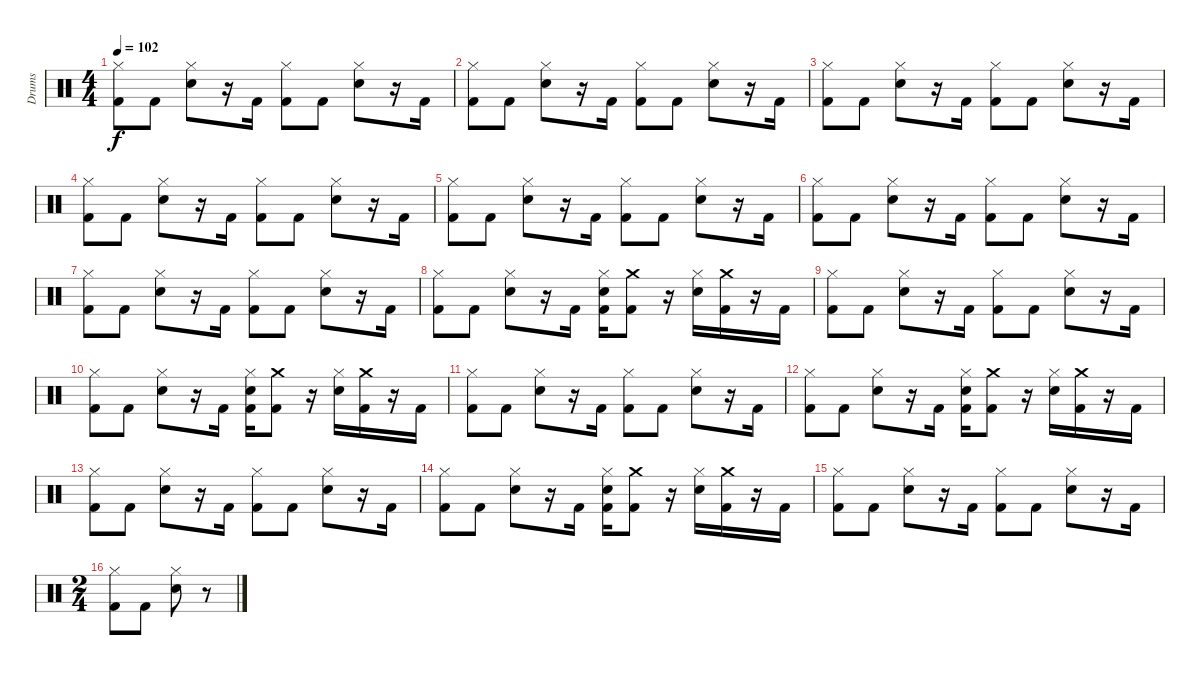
\track ("Drums" "Drums") {instrument percussion}
\staff {score}
\articulation defaults
\ts (4 4)
\tempo 102
\clef neutral
\ks c
("Hi-Hat (closed)" "Kick (hit) 2").8{dy f} "Kick (hit) 2".8 ("Hi-Hat (closed)" "Snare (hit) 2").8 r.16 "Kick (hit) 2".16 ("Hi-Hat (closed)" "Kick (hit) 2").8 "Kick (hit) 2".8 ("Hi-Hat (closed)" "Snare (hit) 2").8 r.16 "Kick (hit) 2".16 |
("Hi-Hat (closed)" "Kick (hit) 2").8 "Kick (hit) 2".8 ("Hi-Hat (closed)" "Snare (hit) 2").8 r.16 "Kick (hit) 2".16 ("Hi-Hat (closed)" "Kick (hit) 2").8 "Kick (hit) 2".8 ("Hi-Hat (closed)" "Snare (hit) 2").8 r.16 "Kick (hit) 2".16 |
("Hi-Hat (closed)" "Kick (hit) 2").8 "Kick (hit) 2".8 ("Hi-Hat (closed)" "Snare (hit) 2").8 r.16 "Kick (hit) 2".16 ("Hi-Hat (closed)" "Kick (hit) 2").8 "Kick (hit) 2".8 ("Hi-Hat (closed)" "Snare (hit) 2").8 r.16 "Kick (hit) 2".16 |
("Hi-Hat (closed)" "Kick (hit) 2").8 "Kick (hit) 2".8 ("Hi-Hat (closed)" "Snare (hit) 2").8 r.16 "Kick (hit) 2".16 ("Hi-Hat (closed)" "Kick (hit) 2").8 "Kick (hit) 2".8 ("Hi-Hat (closed)" "Snare (hit) 2").8 r.16 "Kick (hit) 2".16 |
("Hi-Hat (closed)" "Kick (hit) 2").8 "Kick (hit) 2".8 ("Hi-Hat (closed)" "Snare (hit) 2").8 r.16 "Kick (hit) 2".16 ("Hi-Hat (closed)" "Kick (hit) 2").8 "Kick (hit) 2".8 ("Hi-Hat (closed)" "Snare (hit) 2").8 r.16 "Kick (hit) 2".16 |
("Hi-Hat (closed)" "Kick (hit) 2").8 "Kick (hit) 2".8 ("Hi-Hat (closed)" "Snare (hit) 2").8 r.16 "Kick (hit) 2".16 ("Hi-Hat (closed)" "Kick (hit) 2").8 "Kick (hit) 2".8 ("Hi-Hat (closed)" "Snare (hit) 2").8 r.16 "Kick (hit) 2".16 |
("Hi-Hat (closed)" "Kick (hit) 2").8 "Kick (hit) 2".8 ("Hi-Hat (closed)" "Snare (hit) 2").8 r.16 "Kick (hit) 2".16 ("Hi-Hat (closed)" "Kick (hit) 2").8 "Kick (hit) 2".8 ("Hi-Hat (closed)" "Snare (hit) 2").8 r.16 "Kick (hit) 2".16 |
("Hi-Hat (closed)" "Kick (hit) 2").8 "Kick (hit) 2".8 ("Hi-Hat (closed)" "Snare (hit) 2").8 r.16 "Kick (hit) 2".16 ("Hi-Hat (closed)" "Snare (hit) 2" "Kick (hit) 2").16 ("Crash medium (hit)" "Kick (hit) 2").8 r.16 ("Hi-Hat (closed)" "Snare (hit) 2").16 ("Crash medium (hit)" "Kick (hit) 2").16 r.16 "Kick (hit) 2".16 |
("Hi-Hat (closed)" "Kick (hit) 2").8 "Kick (hit) 2".8 ("Hi-Hat (closed)" "Snare (hit) 2").8 r.16 "Kick (hit) 2".16 ("Hi-Hat (closed)" "Kick (hit) 2").8 "Kick (hit) 2".8 ("Hi-Hat (closed)" "Snare (hit) 2").8 r.16 "Kick (hit) 2".16 |
("Hi-Hat (closed)" "Kick (hit) 2").8 "Kick (hit) 2".8 ("Hi-Hat (closed)" "Snare (hit) 2").8 r.16 "Kick (hit) 2".16 ("Hi-Hat (closed)" "Snare (hit) 2" "Kick (hit) 2").16 ("Crash medium (hit)" "Kick (hit) 2").8 r.16 ("Hi-Hat (closed)" "Snare (hit) 2").16 ("Crash medium (hit)" "Kick (hit) 2").16 r.16 "Kick (hit) 2".16 |
("Hi-Hat (closed)" "Kick (hit) 2").8 "Kick (hit) 2".8 ("Hi-Hat (closed)" "Snare (hit) 2").8 r.16 "Kick (hit) 2".16 ("Hi-Hat (closed)" "Kick (hit) 2").8 "Kick (hit) 2".8 ("Hi-Hat (closed)" "Snare (hit) 2").8 r.16 "Kick (hit) 2".16 |
("Hi-Hat (closed)" "Kick (hit) 2").8 "Kick (hit) 2".8 ("Hi-Hat (closed)" "Snare (hit) 2").8 r.16 "Kick (hit) 2".16 ("Hi-Hat (closed)" "Snare (hit) 2" "Kick (hit) 2").16 ("Crash medium (hit)" "Kick (hit) 2").8 r.16 ("Hi-Hat (closed)" "Snare (hit) 2").16 ("Crash medium (hit)" "Kick (hit) 2").16 r.16 "Kick (hit) 2".16 |
("Hi-Hat (closed)" "Kick (hit) 2").8 "Kick (hit) 2".8 ("Hi-Hat (closed)" "Snare (hit) 2").8 r.16 "Kick (hit) 2".16 ("Hi-Hat (closed)" "Kick (hit) 2").8 "Kick (hit) 2".8 ("Hi-Hat (closed)" "Snare (hit) 2").8 r.16 "Kick (hit) 2".16 |
("Hi-Hat (closed)" "Kick (hit) 2").8 "Kick (hit) 2".8 ("Hi-Hat (closed)" "Snare (hit) 2").8 r.16 "Kick (hit) 2".16 ("Hi-Hat (closed)" "Snare (hit) 2" "Kick (hit) 2").16 ("Crash medium (hit)" "Kick (hit) 2").8 r.16 ("Hi-Hat (closed)" "Snare (hit) 2").16 ("Crash medium (hit)" "Kick (hit) 2").16 r.16 "Kick (hit) 2".16 |
("Hi-Hat (closed)" "Kick (hit) 2").8 "Kick (hit) 2".8 ("Hi-Hat (closed)" "Snare (hit) 2").8 r.16 "Kick (hit) 2".16 ("Hi-Hat (closed)" "Kick (hit) 2").8 "Kick (hit) 2".8 ("Hi-Hat (closed)" "Snare (hit) 2").8 r.16 "Kick (hit) 2".16 |
\ts (2 4)
("Hi-Hat (closed)" "Kick (hit) 2").8 "Kick (hit) 2".8 ("Hi-Hat (closed)" "Snare (hit) 2").8 r.8
